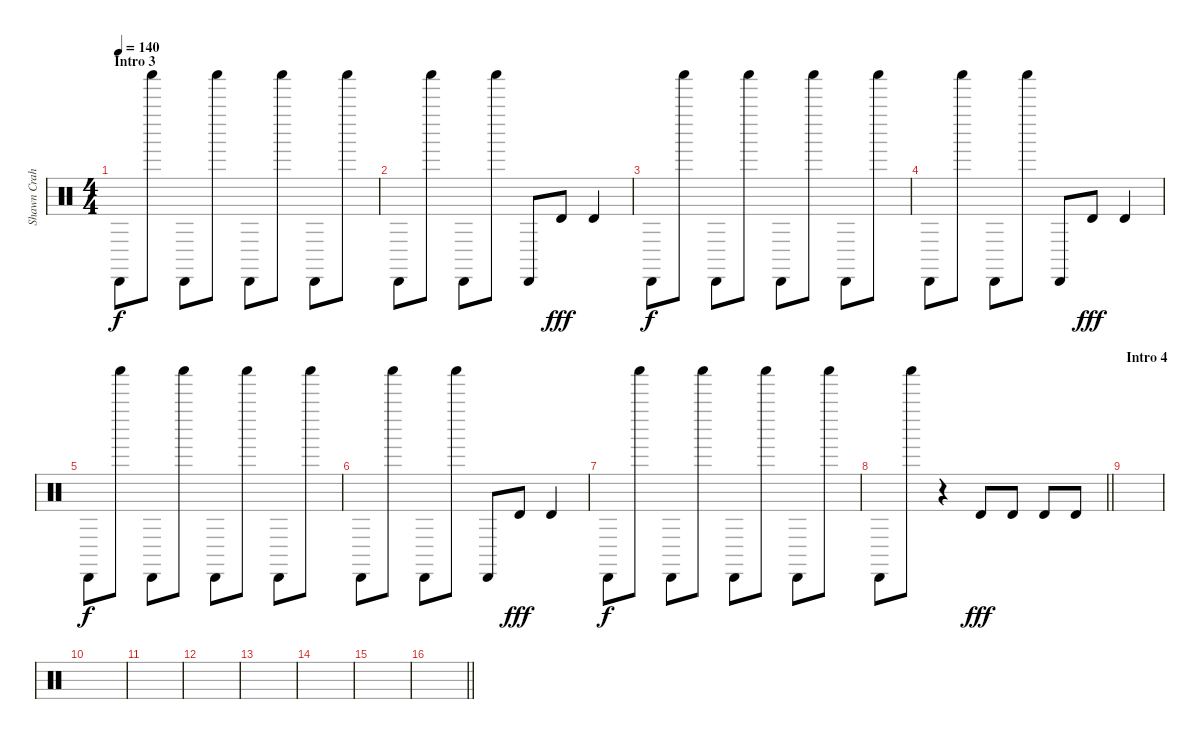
\track ("Shawn Crahan" "Shawn Crah") {instrument percussion}
\staff {score}
\articulation defaults
\ts (4 4)
\section ("" "Intro 3")
\tempo 140
\clef neutral
\ks c "Cabasa (hit)".8{dy f} "Shaker (hit)".8 "Cabasa (hit)".8 "Shaker (hit)".8 "Cabasa (hit)".8 "Shaker (hit)".8 "Cabasa (hit)".8 "Shaker (hit)".8
|
"Cabasa (hit)".8 "Shaker (hit)".8 "Cabasa (hit)".8 "Shaker (hit)".8 "Cabasa (hit)".8 "Timbale high (hit)".8{dy fff} "Timbale high (hit)".4 |
"Cabasa (hit)".8{dy f} "Shaker (hit)".8 "Cabasa (hit)".8 "Shaker (hit)".8 "Cabasa (hit)".8 "Shaker (hit)".8 "Cabasa (hit)".8 "Shaker (hit)".8 |
"Cabasa (hit)".8 "Shaker (hit)".8 "Cabasa (hit)".8 "Shaker (hit)".8 "Cabasa (hit)".8 "Timbale high (hit)".8{dy fff} "Timbale high (hit)".4 |
"Cabasa (hit)".8{dy f} "Shaker (hit)".8 "Cabasa (hit)".8 "Shaker (hit)".8 "Cabasa (hit)".8 "Shaker (hit)".8 "Cabasa (hit)".8 "Shaker (hit)".8 |
"Cabasa (hit)".8 "Shaker (hit)".8 "Cabasa (hit)".8 "Shaker (hit)".8 "Cabasa (hit)".8 "Timbale high (hit)".8{dy fff} "Timbale high (hit)".4 |
"Cabasa (hit)".8{dy f} "Shaker (hit)".8 "Cabasa (hit)".8 "Shaker (hit)".8 "Cabasa (hit)".8 "Shaker (hit)".8 "Cabasa (hit)".8 "Shaker (hit)".8 |
\barLineRight lightlight "Cabasa (hit)".8 "Shaker (hit)".8
r.4 "Timbale high (hit)".8{dy fff} "Timbale high (hit)".8 "Timbale high (hit)".8 "Timbale high (hit)".8 |
\section ("" "Intro 4")
|
|
|
|
|
|
|
\barLineRight lightlight
